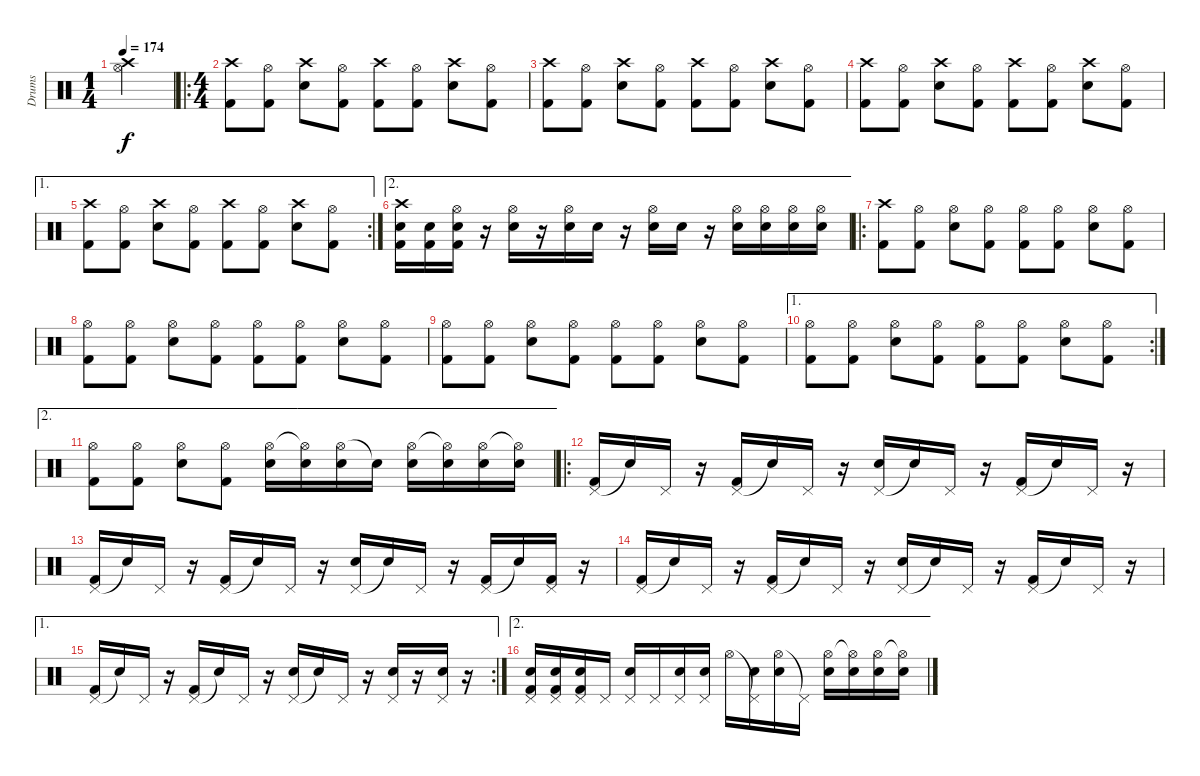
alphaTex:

\track ("Drums" "Drums") {instrument percussion}
\staff {score}
\articulation defaults
\ts (1 4)
\tempo 174
\clef neutral
\ks c
("Crash high (hit)" "Hi-Hat (open)").4{dy f} |
\ro
\ts (4 4)
("Crash high (hit)" "Kick (hit) 2").8 ("Hi-Hat (open)" "Kick (hit) 2").8 ("Crash high (hit)" "Electric Snare (hit)").8 ("Hi-Hat (open)" "Kick (hit) 2").8 ("Crash high (hit)" "Kick (hit) 2").8 ("Hi-Hat (open)" "Kick (hit) 2").8 ("Crash high (hit)" "Electric Snare (hit)").8 ("Hi-Hat (open)" "Kick (hit) 2").8 |
("Crash high (hit)" "Kick (hit) 2").8 ("Hi-Hat (open)" "Kick (hit) 2").8 ("Crash high (hit)" "Electric Snare (hit)").8 ("Hi-Hat (open)" "Kick (hit) 2").8 ("Crash high (hit)" "Kick (hit) 2").8 ("Hi-Hat (open)" "Kick (hit) 2").8 ("Crash high (hit)" "Electric Snare (hit)").8 ("Hi-Hat (open)" "Kick (hit) 2").8 |
("Crash high (hit)" "Kick (hit) 2").8 ("Hi-Hat (open)" "Kick (hit) 2").8 ("Crash high (hit)" "Electric Snare (hit)").8 ("Hi-Hat (open)" "Kick (hit) 2").8 ("Crash high (hit)" "Kick (hit) 2").8 ("Hi-Hat (open)" "Kick (hit) 2").8 ("Crash high (hit)" "Electric Snare (hit)").8 ("Hi-Hat (open)" "Kick (hit) 2").8 |
\ae 1
\rc 2
("Crash high (hit)" "Kick (hit) 2").8 ("Hi-Hat (open)" "Kick (hit) 2").8 ("Crash high (hit)" "Electric Snare (hit)").8 ("Hi-Hat (open)" "Kick (hit) 2").8 ("Crash high (hit)" "Kick (hit) 2").8 ("Hi-Hat (open)" "Kick (hit) 2").8 ("Crash high (hit)" "Electric Snare (hit)").8 ("Hi-Hat (open)" "Kick (hit) 2").8 |
\ae 2
("Crash high (hit)" "Kick (hit) 2" "Electric Snare (hit)").16 ("Kick (hit) 2" "Electric Snare (hit)").16 ("Hi-Hat (open)" "Kick (hit) 2" "Electric Snare (hit)").16 r.16 ("Hi-Hat (open)" "Electric Snare (hit)").16 r.16 ("Hi-Hat (open)" "Electric Snare (hit)").16 "Electric Snare (hit)".16 r.16 ("Hi-Hat (open)" "Electric Snare (hit)").16 "Electric Snare (hit)".16 r.16 ("Hi-Hat (open)" "Electric Snare (hit)").16 ("Hi-Hat (open)" "Electric Snare (hit)").16 ("Hi-Hat (open)" "Electric Snare (hit)").16 ("Hi-Hat (open)" "Electric Snare (hit)").16 |
\ro
("Crash high (hit)" "Kick (hit) 2").8 ("Hi-Hat (open)" "Kick (hit) 2").8 ("Hi-Hat (open)" "Electric Snare (hit)").8 ("Hi-Hat (open)" "Kick (hit) 2").8 ("Hi-Hat (open)" "Kick (hit) 2").8 ("Hi-Hat (open)" "Kick (hit) 2").8 ("Hi-Hat (open)" "Electric Snare (hit)").8 ("Hi-Hat (open)" "Kick (hit) 2").8 |
("Hi-Hat (open)" "Kick (hit) 2").8 ("Hi-Hat (open)" "Kick (hit) 2").8 ("Hi-Hat (open)" "Electric Snare (hit)").8 ("Hi-Hat (open)" "Kick (hit) 2").8 ("Hi-Hat (open)" "Kick (hit) 2").8 ("Hi-Hat (open)" "Kick (hit) 2").8 ("Hi-Hat (open)" "Electric Snare (hit)").8 ("Hi-Hat (open)" "Kick (hit) 2").8 |
("Hi-Hat (open)" "Kick (hit) 2").8 ("Hi-Hat (open)" "Kick (hit) 2").8 ("Hi-Hat (open)" "Electric Snare (hit)").8 ("Hi-Hat (open)" "Kick (hit) 2").8 ("Hi-Hat (open)" "Kick (hit) 2").8 ("Hi-Hat (open)" "Kick (hit) 2").8 ("Hi-Hat (open)" "Electric Snare (hit)").8 ("Hi-Hat (open)" "Kick (hit) 2").8 |
\ae 1
\rc 2
("Hi-Hat (open)" "Kick (hit) 2").8 ("Hi-Hat (open)" "Kick (hit) 2").8 ("Hi-Hat (open)" "Electric Snare (hit)").8 ("Hi-Hat (open)" "Kick (hit) 2").8 ("Hi-Hat (open)" "Kick (hit) 2").8 ("Hi-Hat (open)" "Kick (hit) 2").8 ("Hi-Hat (open)" "Electric Snare (hit)").8 ("Hi-Hat (open)" "Kick (hit) 2").8 |
\ae 2
("Hi-Hat (open)" "Kick (hit) 2").8 ("Hi-Hat (open)" "Kick (hit) 2").8 ("Hi-Hat (open)" "Electric Snare (hit)").8 ("Hi-Hat (open)" "Kick (hit) 2").8 ("Hi-Hat (open)" "Electric Snare (hit)").16 ("Hi-Hat (open)"{t} "Electric Snare (hit)").16 ("Hi-Hat (open)" "Electric Snare (hit)").16 "Snare (hit)"{t}.16 ("Hi-Hat (open)" "Electric Snare (hit)").16 ("Hi-Hat (open)"{t} "Electric Snare (hit)").16 ("Hi-Hat (open)" "Electric Snare (hit)").16 ("Hi-Hat (open)"{t} "Electric Snare (hit)").16 |
\ro
("Pedal Hi-Hat (hit)" "Kick (hit) 2").16 "Snare (hit)"{t}.16 "Pedal Hi-Hat (hit)".16 r.16 ("Pedal Hi-Hat (hit)" "Kick (hit) 2").16 "Snare (hit)"{t}.16 "Pedal Hi-Hat (hit)".16 r.16 ("Pedal Hi-Hat (hit)" "Electric Snare (hit)").16 "Snare (hit)"{t}.16 "Pedal Hi-Hat (hit)".16 r.16 ("Pedal Hi-Hat (hit)" "Kick (hit) 2").16 "Snare (hit)"{t}.16 "Pedal Hi-Hat (hit)".16 r.16 |
("Pedal Hi-Hat (hit)" "Kick (hit) 2").16 "Snare (hit)"{t}.16 "Pedal Hi-Hat (hit)".16 r.16 ("Pedal Hi-Hat (hit)" "Kick (hit) 2").16 "Snare (hit)"{t}.16 "Pedal Hi-Hat (hit)".16 r.16 ("Pedal Hi-Hat (hit)" "Electric Snare (hit)").16 "Snare (hit)"{t}.16 "Pedal Hi-Hat (hit)".16 r.16 ("Pedal Hi-Hat (hit)" "Kick (hit) 2").16 "Snare (hit)"{t}.16 ("Pedal Hi-Hat (hit)" "Kick (hit) 2").16 r.16 |
("Pedal Hi-Hat (hit)" "Kick (hit) 2").16 "Snare (hit)"{t}.16 "Pedal Hi-Hat (hit)".16 r.16 ("Pedal Hi-Hat (hit)" "Kick (hit) 2").16 "Snare (hit)"{t}.16 "Pedal Hi-Hat (hit)".16 r.16 ("Pedal Hi-Hat (hit)" "Electric Snare (hit)").16 "Snare (hit)"{t}.16 "Pedal Hi-Hat (hit)".16 r.16 ("Pedal Hi-Hat (hit)" "Kick (hit) 2").16 "Snare (hit)"{t}.16 "Pedal Hi-Hat (hit)".16 r.16 |
\ae 1
\rc 2
("Pedal Hi-Hat (hit)" "Kick (hit) 2").16 "Snare (hit)"{t}.16 "Pedal Hi-Hat (hit)".16 r.16 ("Pedal Hi-Hat (hit)" "Kick (hit) 2").16 "Snare (hit)"{t}.16 "Pedal Hi-Hat (hit)".16 r.16 ("Pedal Hi-Hat (hit)" "Electric Snare (hit)").16 "Snare (hit)"{t}.16 "Pedal Hi-Hat (hit)".16 r.16 ("Pedal Hi-Hat (hit)" "Electric Snare (hit)").16 r.16 ("Pedal Hi-Hat (hit)" "Electric Snare (hit)").16 r.16 |
\ae 2
("Pedal Hi-Hat (hit)" "Kick (hit) 2" "Electric Snare (hit)").16 ("Pedal Hi-Hat (hit)" "Kick (hit) 2" "Electric Snare (hit)").16 ("Pedal Hi-Hat (hit)" "Kick (hit) 2" "Electric Snare (hit)").16 "Pedal Hi-Hat (hit)".16 ("Pedal Hi-Hat (hit)" "Electric Snare (hit)").16 "Pedal Hi-Hat (hit)".16 ("Pedal Hi-Hat (hit)" "Electric Snare (hit)").16 ("Pedal Hi-Hat (hit)" "Electric Snare (hit)").16 "Hi-Hat (open)".16 ("Pedal Hi-Hat (hit)"{t} "Electric Snare (hit)").16 ("Hi-Hat (open)" "Electric Snare (hit)").16 "Pedal Hi-Hat (hit)"{t}.16 ("Hi-Hat (open)" "Electric Snare (hit)").16 ("Hi-Hat (open)"{t} "Electric Snare (hit)").16 ("Hi-Hat (open)" "Electric Snare (hit)").16 ("Hi-Hat (open)"{t} "Electric Snare (hit)").16
